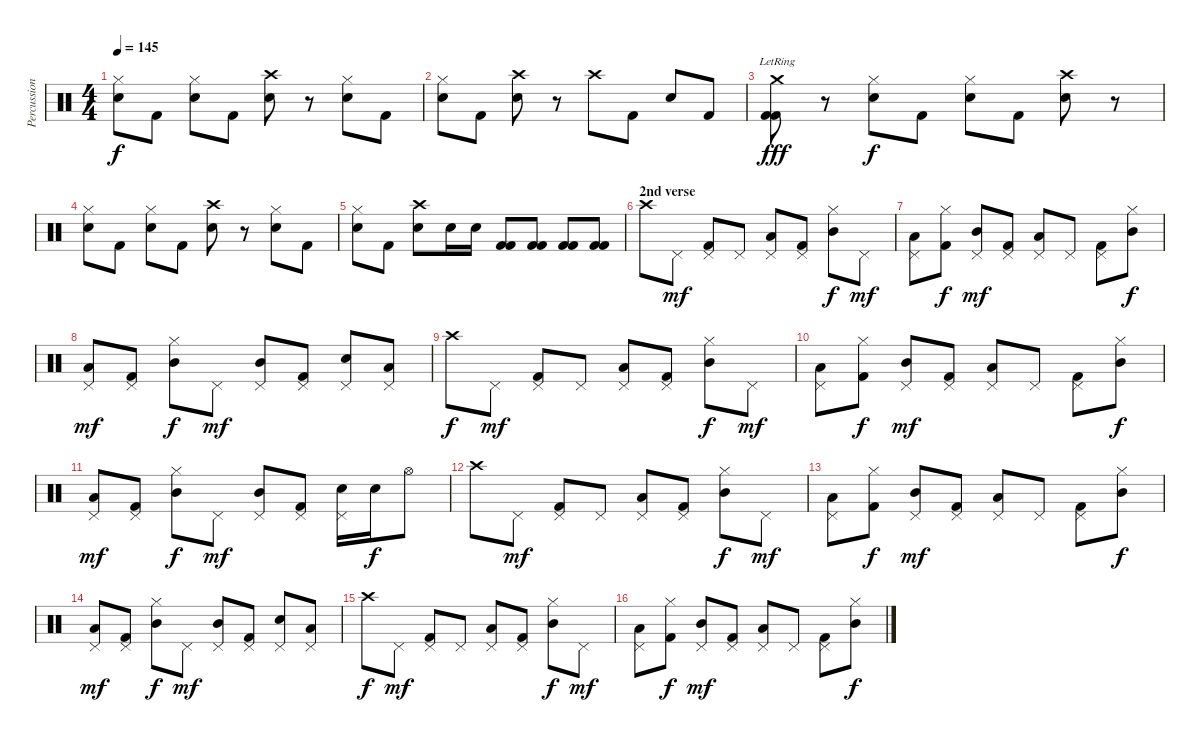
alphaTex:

\track ("Percussion" "Percussion") {instrument percussion}
\staff {score}
\articulation defaults
\ts (4 4)
\tempo 145
\clef neutral
\ks c
("Hi-Hat (closed)" "Electric Snare (hit)").8{dy f} "Kick (hit) 2".8 ("Hi-Hat (closed)" "Electric Snare (hit)").8 "Kick (hit) 2".8 ("Crash high (hit)" "Snare (hit) 2").8 r.8 ("Hi-Hat (closed)" "Electric Snare (hit)").8 "Kick (hit) 2".8 |
("Hi-Hat (closed)" "Electric Snare (hit)").8 "Kick (hit) 2".8 ("Crash high (hit)" "Snare (hit) 2").8 r.8 "Crash high (hit)".8 "Kick (hit) 2".8 "Snare (hit) 2".8 "Kick (hit) 2".8 |
("Crash medium (hit)"{lr} "Kick (hit) 2" "Kick (hit) 2").8{dy fff} r.8 ("Hi-Hat (closed)" "Electric Snare (hit)").8{dy f} "Kick (hit) 2".8 ("Hi-Hat (closed)" "Electric Snare (hit)").8 "Kick (hit) 2".8 ("Crash high (hit)" "Snare (hit) 2").8 r.8 |
("Hi-Hat (closed)" "Electric Snare (hit)").8 "Kick (hit) 2".8 ("Hi-Hat (closed)" "Electric Snare (hit)").8 "Kick (hit) 2".8 ("Crash high (hit)" "Snare (hit) 2").8 r.8 ("Hi-Hat (closed)" "Electric Snare (hit)").8 "Kick (hit) 2".8 |
("Hi-Hat (closed)" "Electric Snare (hit)").8 "Kick (hit) 2".8 ("Crash high (hit)" "Snare (hit) 2").8 "Snare (hit) 2".16 "Snare (hit) 2".16 ("Kick (hit) 2" "Kick (hit) 2").8 ("Kick (hit) 2" "Kick (hit) 2").8 ("Kick (hit) 2" "Kick (hit) 2").8 ("Kick (hit) 2" "Kick (hit) 2").8 |
\section ("" "2nd verse")
"Crash high (hit)".8 "Pedal Hi-Hat (hit)".8{dy mf} ("Pedal Hi-Hat (hit)" "Kick (hit) 2").8 "Pedal Hi-Hat (hit)".8 ("Pedal Hi-Hat (hit)" "Low Tom (hit)").8 ("Pedal Hi-Hat (hit)" "Kick (hit) 2").8 ("Hi-Hat (closed)" "Mid Tom (hit)").8{dy f} "Pedal Hi-Hat (hit)".8{dy mf} |
("Pedal Hi-Hat (hit)" "Low Tom (hit)").8 ("Hi-Hat (closed)" "Kick (hit) 2").8{dy f} ("Pedal Hi-Hat (hit)" "Mid Tom (hit)").8{dy mf} ("Pedal Hi-Hat (hit)" "Kick (hit) 2").8 ("Pedal Hi-Hat (hit)" "Low Tom (hit)").8 "Pedal Hi-Hat (hit)".8 ("Pedal Hi-Hat (hit)" "Kick (hit) 2").8 ("Hi-Hat (closed)" "Mid Tom (hit)").8{dy f} |
("Pedal Hi-Hat (hit)" "Low Tom (hit)").8{dy mf} ("Pedal Hi-Hat (hit)" "Kick (hit) 2").8 ("Hi-Hat (closed)" "Mid Tom (hit)").8{dy f} "Pedal Hi-Hat (hit)".8{dy mf} ("Pedal Hi-Hat (hit)" "Mid Tom (hit)").8 ("Pedal Hi-Hat (hit)" "Kick (hit) 2").8 ("Pedal Hi-Hat (hit)" "Snare (hit) 2").8 ("Pedal Hi-Hat (hit)" "Low Tom (hit)").8 |
"Crash high (hit)".8{dy f} "Pedal Hi-Hat (hit)".8{dy mf} ("Pedal Hi-Hat (hit)" "Kick (hit) 2").8 "Pedal Hi-Hat (hit)".8 ("Pedal Hi-Hat (hit)" "Low Tom (hit)").8 ("Pedal Hi-Hat (hit)" "Kick (hit) 2").8 ("Hi-Hat (closed)" "Mid Tom (hit)").8{dy f} "Pedal Hi-Hat (hit)".8{dy mf} |
("Pedal Hi-Hat (hit)" "Low Tom (hit)").8 ("Hi-Hat (closed)" "Kick (hit) 2").8{dy f} ("Pedal Hi-Hat (hit)" "Mid Tom (hit)").8{dy mf} ("Pedal Hi-Hat (hit)" "Kick (hit) 2").8 ("Pedal Hi-Hat (hit)" "Low Tom (hit)").8 "Pedal Hi-Hat (hit)".8 ("Pedal Hi-Hat (hit)" "Kick (hit) 2").8 ("Hi-Hat (closed)" "Mid Tom (hit)").8{dy f} |
("Pedal Hi-Hat (hit)" "Low Tom (hit)").8{dy mf} ("Pedal Hi-Hat (hit)" "Kick (hit) 2").8 ("Hi-Hat (closed)" "Mid Tom (hit)").8{dy f} "Pedal Hi-Hat (hit)".8{dy mf} ("Pedal Hi-Hat (hit)" "Mid Tom (hit)").8 ("Pedal Hi-Hat (hit)" "Kick (hit) 2").8 ("Pedal Hi-Hat (hit)" "Snare (hit) 2").16 "Snare (hit) 2".16{dy f} "Hi-Hat (open)".8 |
"Crash high (hit)".8 "Pedal Hi-Hat (hit)".8{dy mf} ("Pedal Hi-Hat (hit)" "Kick (hit) 2").8 "Pedal Hi-Hat (hit)".8 ("Pedal Hi-Hat (hit)" "Low Tom (hit)").8 ("Pedal Hi-Hat (hit)" "Kick (hit) 2").8 ("Hi-Hat (closed)" "Mid Tom (hit)").8{dy f} "Pedal Hi-Hat (hit)".8{dy mf} |
("Pedal Hi-Hat (hit)" "Low Tom (hit)").8 ("Hi-Hat (closed)" "Kick (hit) 2").8{dy f} ("Pedal Hi-Hat (hit)" "Mid Tom (hit)").8{dy mf} ("Pedal Hi-Hat (hit)" "Kick (hit) 2").8 ("Pedal Hi-Hat (hit)" "Low Tom (hit)").8 "Pedal Hi-Hat (hit)".8 ("Pedal Hi-Hat (hit)" "Kick (hit) 2").8 ("Hi-Hat (closed)" "Mid Tom (hit)").8{dy f} |
("Pedal Hi-Hat (hit)" "Low Tom (hit)").8{dy mf} ("Pedal Hi-Hat (hit)" "Kick (hit) 2").8 ("Hi-Hat (closed)" "Mid Tom (hit)").8{dy f} "Pedal Hi-Hat (hit)".8{dy mf} ("Pedal Hi-Hat (hit)" "Mid Tom (hit)").8 ("Pedal Hi-Hat (hit)" "Kick (hit) 2").8 ("Pedal Hi-Hat (hit)" "Snare (hit) 2").8 ("Pedal Hi-Hat (hit)" "Low Tom (hit)").8 |
"Crash high (hit)".8{dy f} "Pedal Hi-Hat (hit)".8{dy mf} ("Pedal Hi-Hat (hit)" "Kick (hit) 2").8 "Pedal Hi-Hat (hit)".8 ("Pedal Hi-Hat (hit)" "Low Tom (hit)").8 ("Pedal Hi-Hat (hit)" "Kick (hit) 2").8 ("Hi-Hat (closed)" "Mid Tom (hit)").8{dy f} "Pedal Hi-Hat (hit)".8{dy mf} |
("Pedal Hi-Hat (hit)" "Low Tom (hit)").8 ("Hi-Hat (closed)" "Kick (hit) 2").8{dy f} ("Pedal Hi-Hat (hit)" "Mid Tom (hit)").8{dy mf} ("Pedal Hi-Hat (hit)" "Kick (hit) 2").8 ("Pedal Hi-Hat (hit)" "Low Tom (hit)").8 "Pedal Hi-Hat (hit)".8 ("Pedal Hi-Hat (hit)" "Kick (hit) 2").8 ("Hi-Hat (closed)" "Mid Tom (hit)").8{dy f}
